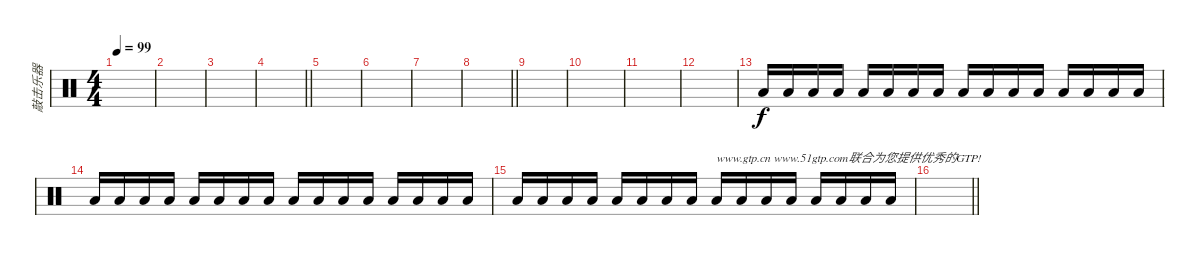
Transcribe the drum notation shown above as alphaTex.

\track ("敲击乐器" "敲击乐器") {instrument percussion}
\staff {score}
\articulation defaults
\ts (4 4)
\tempo 99
\clef neutral
\ks c
|
|
|
\barLineRight lightlight
|
|
|
|
\barLineRight lightlight
|
|
|
|
|
"Low Floor Tom (hit)".16 "Low Floor Tom (hit)".16 "Low Floor Tom (hit)".16 "Low Floor Tom (hit)".16 "Low Floor Tom (hit)".16 "Low Floor Tom (hit)".16 "Low Floor Tom (hit)".16 "Low Floor Tom (hit)".16 "Low Floor Tom (hit)".16 "Low Floor Tom (hit)".16 "Low Floor Tom (hit)".16 "Low Floor Tom (hit)".16 "Low Floor Tom (hit)".16 "Low Floor Tom (hit)".16 "Low Floor Tom (hit)".16 "Low Floor Tom (hit)".16 |
"Low Floor Tom (hit)".16 "Low Floor Tom (hit)".16 "Low Floor Tom (hit)".16 "Low Floor Tom (hit)".16 "Low Floor Tom (hit)".16 "Low Floor Tom (hit)".16 "Low Floor Tom (hit)".16 "Low Floor Tom (hit)".16 "Low Floor Tom (hit)".16 "Low Floor Tom (hit)".16 "Low Floor Tom (hit)".16 "Low Floor Tom (hit)".16 "Low Floor Tom (hit)".16 "Low Floor Tom (hit)".16 "Low Floor Tom (hit)".16 "Low Floor Tom (hit)".16 |
"Low Floor Tom (hit)".16 "Low Floor Tom (hit)".16 "Low Floor Tom (hit)".16 "Low Floor Tom (hit)".16 "Low Floor Tom (hit)".16 "Low Floor Tom (hit)".16 "Low Floor Tom (hit)".16 "Low Floor Tom (hit)".16 "Low Floor Tom (hit)".16{txt "www.gtp.cn www.51gtp.com联合为您提供优秀的GTP!"} "Low Floor Tom (hit)".16 "Low Floor Tom (hit)".16 "Low Floor Tom (hit)".16 "Low Floor Tom (hit)".16 "Low Floor Tom (hit)".16 "Low Floor Tom (hit)".16 "Low Floor Tom (hit)".16 |
\barLineRight lightlight
